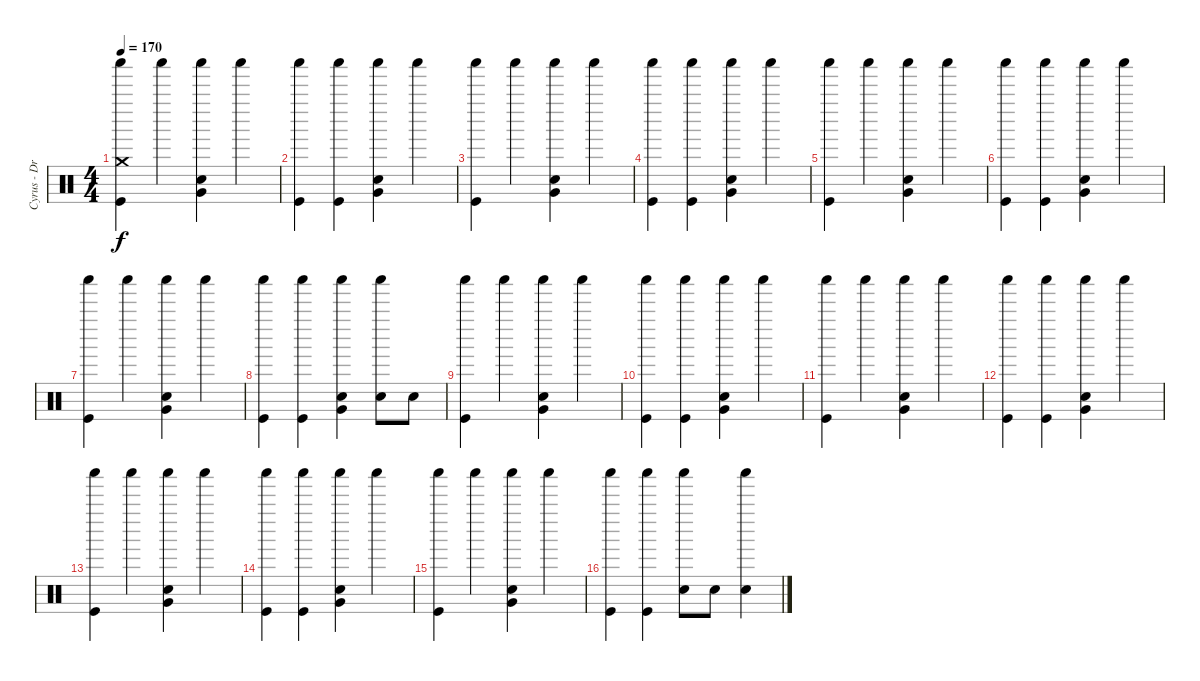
\track ("Cyrus - Drums" "Cyrus - Dr") {instrument percussion}
\staff {score}
\articulation defaults
\ts (4 4)
\tempo 170
\clef neutral
\ks c
("Shaker (hit)" "Crash medium (hit)" "Kick (hit)").4{dy f} "Shaker (hit)".4 ("Shaker (hit)" "Electric Snare (hit)" "Very Low Tom (hit)").4 "Shaker (hit)".4 |
("Shaker (hit)" "Kick (hit)").4 ("Shaker (hit)" "Kick (hit)").4 ("Shaker (hit)" "Electric Snare (hit)" "Very Low Tom (hit)").4 "Shaker (hit)".4 |
("Shaker (hit)" "Kick (hit)").4 "Shaker (hit)".4 ("Shaker (hit)" "Electric Snare (hit)" "Very Low Tom (hit)").4 "Shaker (hit)".4 |
("Shaker (hit)" "Kick (hit)").4 ("Shaker (hit)" "Kick (hit)").4 ("Shaker (hit)" "Electric Snare (hit)" "Very Low Tom (hit)").4 "Shaker (hit)".4 |
("Shaker (hit)" "Kick (hit)").4 "Shaker (hit)".4 ("Shaker (hit)" "Electric Snare (hit)" "Very Low Tom (hit)").4 "Shaker (hit)".4 |
("Shaker (hit)" "Kick (hit)").4 ("Shaker (hit)" "Kick (hit)").4 ("Shaker (hit)" "Electric Snare (hit)" "Very Low Tom (hit)").4 "Shaker (hit)".4 |
("Shaker (hit)" "Kick (hit)").4 "Shaker (hit)".4 ("Shaker (hit)" "Electric Snare (hit)" "Very Low Tom (hit)").4 "Shaker (hit)".4 |
("Shaker (hit)" "Kick (hit)").4 ("Shaker (hit)" "Kick (hit)").4 ("Shaker (hit)" "Electric Snare (hit)" "Very Low Tom (hit)").4 ("Shaker (hit)" "Electric Snare (hit)").8 "Electric Snare (hit)".8 |
("Shaker (hit)" "Kick (hit)").4 "Shaker (hit)".4 ("Shaker (hit)" "Electric Snare (hit)" "Very Low Tom (hit)").4 "Shaker (hit)".4 |
("Shaker (hit)" "Kick (hit)").4 ("Shaker (hit)" "Kick (hit)").4 ("Shaker (hit)" "Electric Snare (hit)" "Very Low Tom (hit)").4 "Shaker (hit)".4 |
("Shaker (hit)" "Kick (hit)").4 "Shaker (hit)".4 ("Shaker (hit)" "Electric Snare (hit)" "Very Low Tom (hit)").4 "Shaker (hit)".4 |
("Shaker (hit)" "Kick (hit)").4 ("Shaker (hit)" "Kick (hit)").4 ("Shaker (hit)" "Electric Snare (hit)" "Very Low Tom (hit)").4 "Shaker (hit)".4 |
("Shaker (hit)" "Kick (hit)").4 "Shaker (hit)".4 ("Shaker (hit)" "Electric Snare (hit)" "Very Low Tom (hit)").4 "Shaker (hit)".4 |
("Shaker (hit)" "Kick (hit)").4 ("Shaker (hit)" "Kick (hit)").4 ("Shaker (hit)" "Electric Snare (hit)" "Very Low Tom (hit)").4 "Shaker (hit)".4 |
("Shaker (hit)" "Kick (hit)").4 "Shaker (hit)".4 ("Shaker (hit)" "Electric Snare (hit)" "Very Low Tom (hit)").4 "Shaker (hit)".4 |
("Shaker (hit)" "Kick (hit)").4 ("Shaker (hit)" "Kick (hit)").4 ("Shaker (hit)" "Electric Snare (hit)").8 "Electric Snare (hit)".8 ("Shaker (hit)" "Electric Snare (hit)").4
